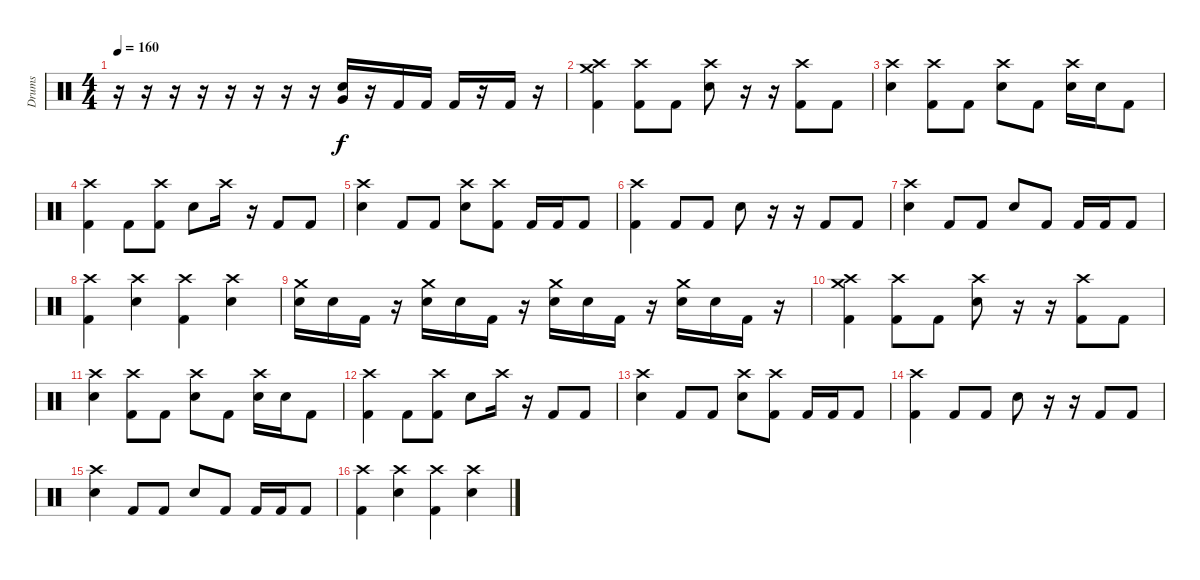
\track ("Drums" "Drums") {instrument percussion}
\staff {score}
\articulation defaults
\ts (4 4)
\tempo 160
\clef neutral
\ks c
r.16{dy f} r.16 r.16 r.16 r.16 r.16 r.16 r.16 ("Very Low Tom (hit)" "Snare (hit) 2").16 r.16 "Kick (hit) 2".16 "Kick (hit) 2".16 "Kick (hit) 2".16 r.16 "Kick (hit) 2".16 r.16 |
("Crash high (hit)" "Crash medium (hit)" "Kick (hit) 2").4 ("Crash high (hit)" "Kick (hit) 2").8 "Kick (hit) 2".8 ("Crash high (hit)" "Snare (hit) 2").8 r.16 r.16 ("Crash high (hit)" "Kick (hit) 2").8 "Kick (hit) 2".8 |
("Crash high (hit)" "Snare (hit) 2").4 ("Crash high (hit)" "Kick (hit) 2").8 "Kick (hit) 2".8 ("Crash high (hit)" "Snare (hit) 2").8 "Kick (hit) 2".8 ("Crash high (hit)" "Snare (hit) 2").16 "Snare (hit) 2".16 "Kick (hit) 2".8 |
("Crash high (hit)" "Kick (hit) 2").4 "Kick (hit) 2".8 ("Crash high (hit)" "Kick (hit) 2").8 "Snare (hit) 2".8 "Crash high (hit)".16 r.16 "Kick (hit) 2".8 "Kick (hit) 2".8 |
("Crash high (hit)" "Snare (hit) 2").4 "Kick (hit) 2".8 "Kick (hit) 2".8 ("Crash high (hit)" "Snare (hit) 2").8 ("Crash high (hit)" "Kick (hit) 2").8 "Kick (hit) 2".16 "Kick (hit) 2".16 "Kick (hit) 2".8 |
("Crash high (hit)" "Kick (hit) 2").4 "Kick (hit) 2".8 "Kick (hit) 2".8 "Snare (hit) 2".8 r.16 r.16 "Kick (hit) 2".8 "Kick (hit) 2".8 |
("Crash high (hit)" "Snare (hit) 2").4 "Kick (hit) 2".8 "Kick (hit) 2".8 "Snare (hit) 2".8 "Kick (hit) 2".8 "Kick (hit) 2".16 "Kick (hit) 2".16 "Kick (hit) 2".8 |
("Crash high (hit)" "Kick (hit) 2").4 ("Crash high (hit)" "Snare (hit) 2").4 ("Crash high (hit)" "Kick (hit) 2").4 ("Crash high (hit)" "Snare (hit) 2").4 |
("Crash medium (hit)" "Snare (hit) 2").16 "Snare (hit) 2".16 "Kick (hit) 2".16 r.16 ("Crash medium (hit)" "Snare (hit) 2").16 "Snare (hit) 2".16 "Kick (hit) 2".16 r.16 ("Crash medium (hit)" "Snare (hit) 2").16 "Snare (hit) 2".16 "Kick (hit) 2".16 r.16 ("Crash medium (hit)" "Snare (hit) 2").16 "Snare (hit) 2".16 "Kick (hit) 2".16 r.16 |
("Crash high (hit)" "Crash medium (hit)" "Kick (hit) 2").4 ("Crash high (hit)" "Kick (hit) 2").8 "Kick (hit) 2".8 ("Crash high (hit)" "Snare (hit) 2").8 r.16 r.16 ("Crash high (hit)" "Kick (hit) 2").8 "Kick (hit) 2".8 |
("Crash high (hit)" "Snare (hit) 2").4 ("Crash high (hit)" "Kick (hit) 2").8 "Kick (hit) 2".8 ("Crash high (hit)" "Snare (hit) 2").8 "Kick (hit) 2".8 ("Crash high (hit)" "Snare (hit) 2").16 "Snare (hit) 2".16 "Kick (hit) 2".8 |
("Crash high (hit)" "Kick (hit) 2").4 "Kick (hit) 2".8 ("Crash high (hit)" "Kick (hit) 2").8 "Snare (hit) 2".8 "Crash high (hit)".16 r.16 "Kick (hit) 2".8 "Kick (hit) 2".8 |
("Crash high (hit)" "Snare (hit) 2").4 "Kick (hit) 2".8 "Kick (hit) 2".8 ("Crash high (hit)" "Snare (hit) 2").8 ("Crash high (hit)" "Kick (hit) 2").8 "Kick (hit) 2".16 "Kick (hit) 2".16 "Kick (hit) 2".8 |
("Crash high (hit)" "Kick (hit) 2").4 "Kick (hit) 2".8 "Kick (hit) 2".8 "Snare (hit) 2".8 r.16 r.16 "Kick (hit) 2".8 "Kick (hit) 2".8 |
("Crash high (hit)" "Snare (hit) 2").4 "Kick (hit) 2".8 "Kick (hit) 2".8 "Snare (hit) 2".8 "Kick (hit) 2".8 "Kick (hit) 2".16 "Kick (hit) 2".16 "Kick (hit) 2".8 |
("Crash high (hit)" "Kick (hit) 2").4 ("Crash high (hit)" "Snare (hit) 2").4 ("Crash high (hit)" "Kick (hit) 2").4 ("Crash high (hit)" "Snare (hit) 2").4
